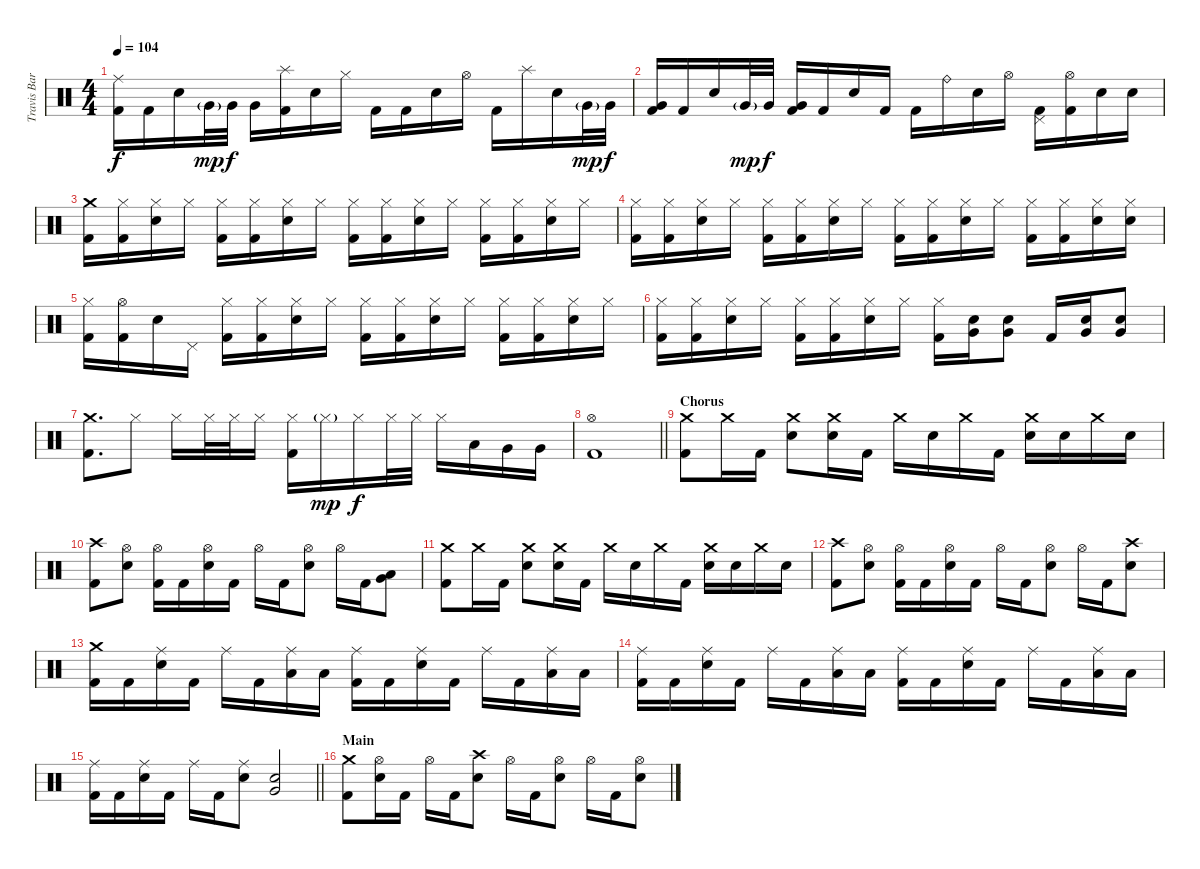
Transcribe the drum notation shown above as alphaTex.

\track ("Travis Barker - Drums" "Travis Bar") {instrument percussion}
\staff {score}
\articulation defaults
\ts (4 4)
\tempo 104
\clef neutral
\ks c
("Ride (middle)" "Kick (hit) 2").16{dy f} "Kick (hit) 2".16 "Electric Snare (hit)".16 "Very Low Tom (hit)"{g}.32{dy mp} "Very Low Tom (hit)".32{dy f} "Very Low Tom (hit)".16 ("Splash (hit)" "Kick (hit) 2").16 "Electric Snare (hit)".16 "Hi-Hat (closed)".16 "Kick (hit) 2".16 "Kick (hit) 2".16 "Electric Snare (hit)".16 "Hi-Hat (open)".16 "Kick (hit) 2".16 "Splash (hit)".16 "Electric Snare (hit)".16 "Very Low Tom (hit)"{g}.32{dy mp} "Very Low Tom (hit)".32{dy f} |
("Very Low Tom (hit)" "Kick (hit) 2").16 "Kick (hit) 2".16 "Electric Snare (hit)".16 "Very Low Tom (hit)"{g}.32{dy mp} "Very Low Tom (hit)".32{dy f} ("Very Low Tom (hit)" "Kick (hit) 2").16 "Kick (hit) 2".16 "Electric Snare (hit)".16 "Kick (hit) 2".16 "Kick (hit) 2".16 "Ride (bell)".16 "Electric Snare (hit)".16 "Hi-Hat (open)".16 ("Pedal Hi-Hat (hit)" "Kick (hit) 2").16 ("Hi-Hat (open)" "Kick (hit) 2").16 "Electric Snare (hit)".16 "Electric Snare (hit)".16 |
("Crash medium (hit)" "Kick (hit) 2").16 ("Hi-Hat (closed)" "Kick (hit) 2").16 ("Hi-Hat (closed)" "Electric Snare (hit)").16 "Hi-Hat (closed)".16 ("Hi-Hat (closed)" "Kick (hit) 2").16 ("Hi-Hat (closed)" "Kick (hit) 2").16 ("Hi-Hat (closed)" "Electric Snare (hit)").16 "Hi-Hat (closed)".16 ("Hi-Hat (closed)" "Kick (hit) 2").16 ("Hi-Hat (closed)" "Kick (hit) 2").16 ("Hi-Hat (closed)" "Electric Snare (hit)").16 "Hi-Hat (closed)".16 ("Hi-Hat (closed)" "Kick (hit) 2").16 ("Hi-Hat (closed)" "Kick (hit) 2").16 ("Hi-Hat (closed)" "Electric Snare (hit)").16 "Hi-Hat (closed)".16 |
("Hi-Hat (closed)" "Kick (hit) 2").16 ("Hi-Hat (closed)" "Kick (hit) 2").16 ("Hi-Hat (closed)" "Electric Snare (hit)").16 "Hi-Hat (closed)".16 ("Hi-Hat (closed)" "Kick (hit) 2").16 ("Hi-Hat (closed)" "Kick (hit) 2").16 ("Hi-Hat (closed)" "Electric Snare (hit)").16 "Hi-Hat (closed)".16 ("Hi-Hat (closed)" "Kick (hit) 2").16 ("Hi-Hat (closed)" "Kick (hit) 2").16 ("Hi-Hat (closed)" "Electric Snare (hit)").16 "Hi-Hat (closed)".16 ("Hi-Hat (closed)" "Kick (hit) 2").16 ("Hi-Hat (closed)" "Kick (hit) 2").16 ("Hi-Hat (closed)" "Electric Snare (hit)").16 ("Hi-Hat (closed)" "Electric Snare (hit)").16 |
("Hi-Hat (closed)" "Kick (hit) 2").16 ("Hi-Hat (open)" "Kick (hit) 2").16 "Electric Snare (hit)".16 "Pedal Hi-Hat (hit)".16 ("Hi-Hat (closed)" "Kick (hit) 2").16 ("Hi-Hat (closed)" "Kick (hit) 2").16 ("Hi-Hat (closed)" "Electric Snare (hit)").16 "Hi-Hat (closed)".16 ("Hi-Hat (closed)" "Kick (hit) 2").16 ("Hi-Hat (closed)" "Kick (hit) 2").16 ("Hi-Hat (closed)" "Electric Snare (hit)").16 "Hi-Hat (closed)".16 ("Hi-Hat (closed)" "Kick (hit) 2").16 ("Hi-Hat (closed)" "Kick (hit) 2").16 ("Hi-Hat (closed)" "Electric Snare (hit)").16 "Hi-Hat (closed)".16 |
("Hi-Hat (closed)" "Kick (hit) 2").16 ("Hi-Hat (closed)" "Kick (hit) 2").16 ("Hi-Hat (closed)" "Electric Snare (hit)").16 "Hi-Hat (closed)".16 ("Hi-Hat (closed)" "Kick (hit) 2").16 ("Hi-Hat (closed)" "Kick (hit) 2").16 ("Hi-Hat (closed)" "Electric Snare (hit)").16 "Hi-Hat (closed)".16 ("Hi-Hat (closed)" "Kick (hit) 2").16 ("Very Low Tom (hit)" "Electric Snare (hit)").16 ("Very Low Tom (hit)" "Electric Snare (hit)").8 "Kick (hit) 2".16 ("Very Low Tom (hit)" "Electric Snare (hit)").16 ("Very Low Tom (hit)" "Electric Snare (hit)").8 |
("Crash medium (hit)" "Kick (hit) 2").8{d} "Hi-Hat (closed)".8 "Hi-Hat (closed)".16 "Hi-Hat (closed)".32 "Hi-Hat (closed)".32 "Hi-Hat (closed)".16 ("Hi-Hat (closed)" "Kick (hit) 2").16 "Hi-Hat (closed)"{g}.16{dy mp} "Hi-Hat (closed)".16{dy f} "Hi-Hat (closed)".32 "Hi-Hat (closed)".32 "Hi-Hat (closed)".16 "Low Tom (hit)".16 "Very Low Tom (hit)".16 "Very Low Tom (hit)".16 |
\barLineRight lightlight
("Hi-Hat (open)" "Kick (hit) 2").1 |
\section ("" "Chorus")
("Crash medium (hit)" "Kick (hit) 2").8 "Crash medium (hit)".16 "Kick (hit) 2".16 ("Crash medium (hit)" "Electric Snare (hit)").8 ("Crash medium (hit)" "Electric Snare (hit)").16 "Kick (hit) 2".16 "Crash medium (hit)".16 "Electric Snare (hit)".16 "Crash medium (hit)".16 "Kick (hit) 2".16 ("Crash medium (hit)" "Electric Snare (hit)").16 "Electric Snare (hit)".16 "Crash medium (hit)".16 "Electric Snare (hit)".16 |
("Crash high (hit)" "Kick (hit) 2").8 ("Hi-Hat (open)" "Electric Snare (hit)").8 ("Hi-Hat (open)" "Kick (hit) 2").16 "Kick (hit) 2".16 ("Hi-Hat (open)" "Electric Snare (hit)").16 "Kick (hit) 2".16 "Hi-Hat (open)".16 "Kick (hit) 2".16 ("Hi-Hat (open)" "Electric Snare (hit)").8 "Hi-Hat (open)".16 "Kick (hit) 2".16 ("Very Low Tom (hit)" "Low Floor Tom (hit)").8 |
("Crash medium (hit)" "Kick (hit) 2").8 "Crash medium (hit)".16 "Kick (hit) 2".16 ("Crash medium (hit)" "Electric Snare (hit)").8 ("Crash medium (hit)" "Electric Snare (hit)").16 "Kick (hit) 2".16 "Crash medium (hit)".16 "Electric Snare (hit)".16 "Crash medium (hit)".16 "Kick (hit) 2".16 ("Crash medium (hit)" "Electric Snare (hit)").16 "Electric Snare (hit)".16 "Crash medium (hit)".16 "Electric Snare (hit)".16 |
("Crash high (hit)" "Kick (hit) 2").8 ("Hi-Hat (open)" "Electric Snare (hit)").8 ("Hi-Hat (open)" "Kick (hit) 2").16 "Kick (hit) 2".16 ("Hi-Hat (open)" "Electric Snare (hit)").16 "Kick (hit) 2".16 "Hi-Hat (open)".16 "Kick (hit) 2".16 ("Hi-Hat (open)" "Electric Snare (hit)").8 "Hi-Hat (open)".16 "Kick (hit) 2".16 ("Crash high (hit)" "Electric Snare (hit)").8 |
("Crash medium (hit)" "Kick (hit) 2").16 "Kick (hit) 2".16 ("Ride (middle)" "Electric Snare (hit)").16 "Kick (hit) 2".16 "Ride (middle)".16 "Kick (hit) 2".16 ("Ride (middle)" "Low Tom (hit)").16 "Low Tom (hit)".16 ("Ride (middle)" "Kick (hit) 2").16 "Kick (hit) 2".16 ("Ride (middle)" "Electric Snare (hit)").16 "Kick (hit) 2".16 "Ride (middle)".16 "Kick (hit) 2".16 ("Ride (middle)" "Low Tom (hit)").16 "Low Tom (hit)".16 |
("Ride (middle)" "Kick (hit) 2").16 "Kick (hit) 2".16 ("Ride (middle)" "Electric Snare (hit)").16 "Kick (hit) 2".16 "Ride (middle)".16 "Kick (hit) 2".16 ("Ride (middle)" "Low Tom (hit)").16 "Low Tom (hit)".16 ("Ride (middle)" "Kick (hit) 2").16 "Kick (hit) 2".16 ("Ride (middle)" "Electric Snare (hit)").16 "Kick (hit) 2".16 "Ride (middle)".16 "Kick (hit) 2".16 ("Ride (middle)" "Low Tom (hit)").16 "Low Tom (hit)".16 |
\barLineRight lightlight
("Ride (middle)" "Kick (hit) 2").16 "Kick (hit) 2".16 ("Ride (middle)" "Electric Snare (hit)").16 "Kick (hit) 2".16 "Ride (middle)".16 "Kick (hit) 2".16 ("Ride (middle)" "Electric Snare (hit)").8 ("Electric Snare (hit)" "Very Low Tom (hit)").2 |
\section ("" "Main")
("Crash medium (hit)" "Kick (hit) 2").8 ("Hi-Hat (open)" "Electric Snare (hit)").16 "Kick (hit) 2".16 "Hi-Hat (open)".16 "Kick (hit) 2".16 ("Crash high (hit)" "Electric Snare (hit)").8 "Hi-Hat (open)".16 "Kick (hit) 2".16 ("Hi-Hat (open)" "Electric Snare (hit)").8 "Hi-Hat (open)".16 "Kick (hit) 2".16 ("Hi-Hat (open)" "Electric Snare (hit)").8
